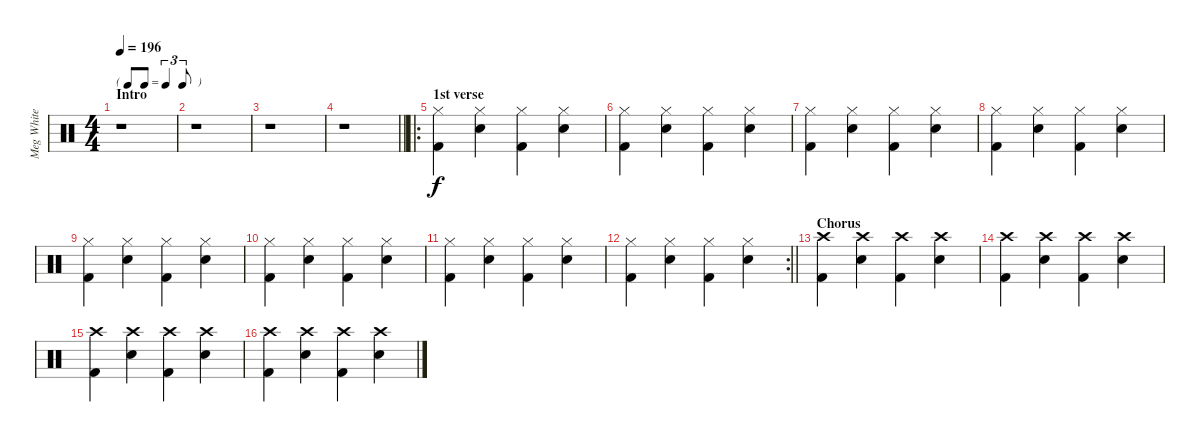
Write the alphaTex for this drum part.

\track ("Meg White" "Meg White") {instrument percussion}
\staff {score}
\articulation defaults
\ts (4 4)
\tf triplet8th
\section ("" "Intro")
\tempo 196
\clef neutral
\ks c
r.1{dy f} |
r.1 |
r.1 |
\barLineRight lightlight
r.1 |
\ro
\section ("" "1st verse")
("Hi-Hat (closed)" "Kick (hit) 2").4 ("Hi-Hat (closed)" "Electric Snare (hit)").4 ("Hi-Hat (closed)" "Kick (hit) 2").4 ("Hi-Hat (closed)" "Electric Snare (hit)").4 |
("Hi-Hat (closed)" "Kick (hit) 2").4 ("Hi-Hat (closed)" "Electric Snare (hit)").4 ("Hi-Hat (closed)" "Kick (hit) 2").4 ("Hi-Hat (closed)" "Electric Snare (hit)").4 |
("Hi-Hat (closed)" "Kick (hit) 2").4 ("Hi-Hat (closed)" "Electric Snare (hit)").4 ("Hi-Hat (closed)" "Kick (hit) 2").4 ("Hi-Hat (closed)" "Electric Snare (hit)").4 |
("Hi-Hat (closed)" "Kick (hit) 2").4 ("Hi-Hat (closed)" "Electric Snare (hit)").4 ("Hi-Hat (closed)" "Kick (hit) 2").4 ("Hi-Hat (closed)" "Electric Snare (hit)").4 |
("Hi-Hat (closed)" "Kick (hit) 2").4 ("Hi-Hat (closed)" "Electric Snare (hit)").4 ("Hi-Hat (closed)" "Kick (hit) 2").4 ("Hi-Hat (closed)" "Electric Snare (hit)").4 |
("Hi-Hat (closed)" "Kick (hit) 2").4 ("Hi-Hat (closed)" "Electric Snare (hit)").4 ("Hi-Hat (closed)" "Kick (hit) 2").4 ("Hi-Hat (closed)" "Electric Snare (hit)").4 |
("Hi-Hat (closed)" "Kick (hit) 2").4 ("Hi-Hat (closed)" "Electric Snare (hit)").4 ("Hi-Hat (closed)" "Kick (hit) 2").4 ("Hi-Hat (closed)" "Electric Snare (hit)").4 |
\rc 2
\barLineRight lightlight
("Hi-Hat (closed)" "Kick (hit) 2").4 ("Hi-Hat (closed)" "Electric Snare (hit)").4 ("Hi-Hat (closed)" "Kick (hit) 2").4 ("Hi-Hat (closed)" "Electric Snare (hit)").4 |
\section ("" "Chorus")
("Crash high (hit)" "Kick (hit) 2").4 ("Crash high (hit)" "Electric Snare (hit)").4 ("Crash high (hit)" "Kick (hit) 2").4 ("Crash high (hit)" "Electric Snare (hit)").4 |
("Crash high (hit)" "Kick (hit) 2").4 ("Crash high (hit)" "Electric Snare (hit)").4 ("Crash high (hit)" "Kick (hit) 2").4 ("Crash high (hit)" "Electric Snare (hit)").4 |
("Crash high (hit)" "Kick (hit) 2").4 ("Crash high (hit)" "Electric Snare (hit)").4 ("Crash high (hit)" "Kick (hit) 2").4 ("Crash high (hit)" "Electric Snare (hit)").4 |
("Crash high (hit)" "Kick (hit) 2").4 ("Crash high (hit)" "Electric Snare (hit)").4 ("Crash high (hit)" "Kick (hit) 2").4 ("Crash high (hit)" "Electric Snare (hit)").4
